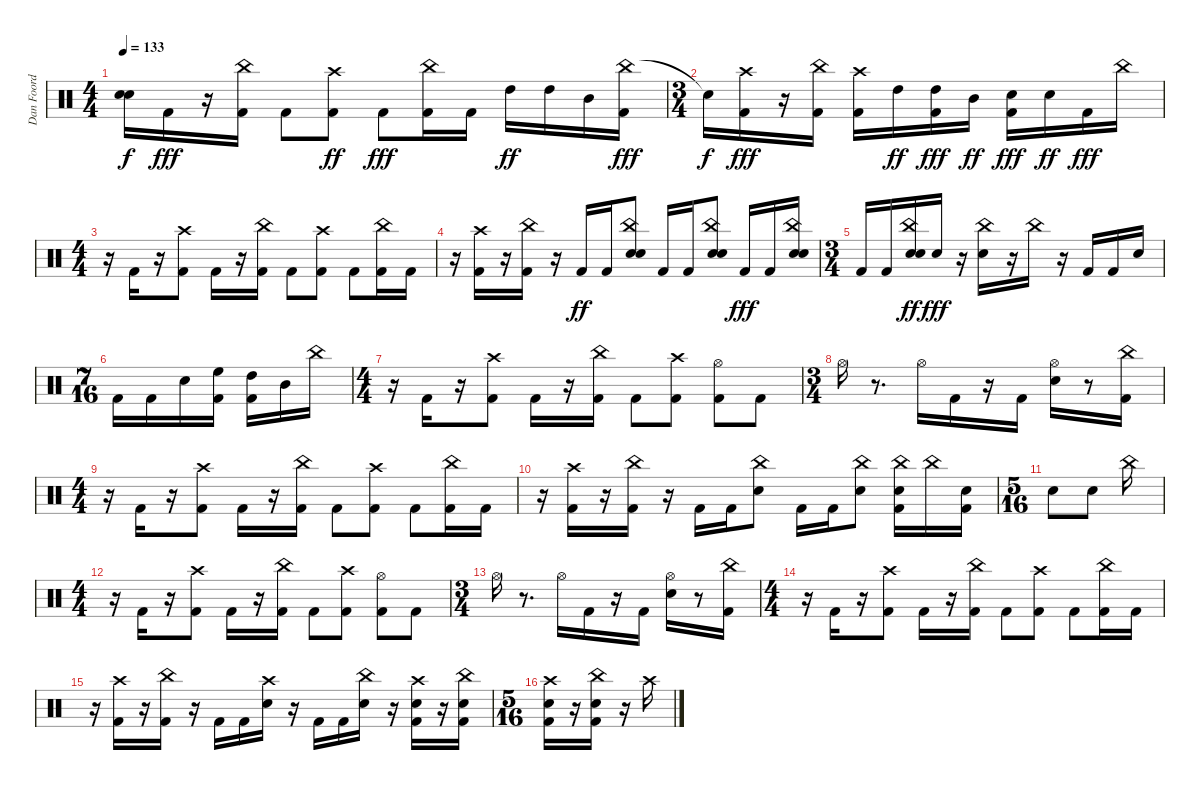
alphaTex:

\track ("Dan Foord 2" "Dan Foord ") {instrument percussion}
\staff {score}
\articulation defaults
\ts (4 4)
\tempo 133
\clef neutral
\ks c
("Snare (hit)"{t} "Snare (hit)"{t}).16{dy f} "Kick (hit) 2".16{dy fff} r.16 ("Kick (hit) 2" "China (hit)").16 "Kick (hit) 2".8 ("Kick (hit) 2" "Crash high (hit)").8{dy ff} "Kick (hit) 2".8{dy fff} ("Kick (hit) 2" "China (hit)").16 "Kick (hit) 2".16 "High Tom (hit)".16{dy ff} "High Tom (hit)".16 "Mid Tom (hit)".16 ("China (hit)" "Kick (hit) 2").16{dy fff} |
\ts (3 4)
"Snare (hit)"{t}.16{dy f} ("Crash high (hit)" "Kick (hit) 2").16{dy fff} r.16 ("China (hit)" "Kick (hit) 2").16 ("Crash high (hit)" "Kick (hit) 2").16 "High Tom (hit)".16{dy ff} ("High Tom (hit)" "Kick (hit) 2").16{dy fff} "Mid Tom (hit)".16{dy ff} ("Snare (hit) 2" "Kick (hit) 2").16{dy fff} "Snare (hit) 2".16{dy ff} "Kick (hit) 2".16{dy fff} "China (hit)".16 |
\ts (4 4)
r.16 "Kick (hit) 2".16 r.16 ("Kick (hit) 2" "Crash high (hit)").8 "Kick (hit) 2".16 r.16 ("Kick (hit) 2" "China (hit)").16 "Kick (hit) 2".8 ("Kick (hit) 2" "Crash high (hit)").8 "Kick (hit) 2".8 ("Kick (hit) 2" "China (hit)").16 "Kick (hit) 2".16 |
r.16 ("Kick (hit) 2" "Crash high (hit)").16 r.16 ("China (hit)" "Kick (hit) 2").16 r.16 "Kick (hit) 2".16{dy ff} "Kick (hit) 2".16 ("Snare (hit) 2" "Electric Snare (hit)" "China (hit)").8 "Kick (hit) 2".16 "Kick (hit) 2".16 ("Snare (hit) 2" "Electric Snare (hit)" "China (hit)").8 "Kick (hit) 2".16{dy fff} "Kick (hit) 2".16 ("Snare (hit) 2" "Electric Snare (hit)" "China (hit)").16 |
\ts (3 4)
"Kick (hit) 2".16 "Kick (hit) 2".16 ("Snare (hit) 2" "Electric Snare (hit)" "China (hit)").16{dy ff} "Snare (hit) 2".16{dy fff} r.16 ("Snare (hit) 2" "China (hit)").16 r.16 "China (hit)".16 r.16 "Kick (hit) 2".16 "Kick (hit) 2".16 "Snare (hit) 2".16 |
\ts (7 16)
"Kick (hit) 2".16 "Kick (hit) 2".16 "Snare (hit) 2".16 ("Kick (hit) 2" "High Floor Tom (hit)").16 ("Kick (hit) 2" "High Tom (hit)").16 "Mid Tom (hit)".16 "China (hit)".16 |
\ts (4 4)
r.16 "Kick (hit) 2".16 r.16 ("Kick (hit) 2" "Crash high (hit)").8 "Kick (hit) 2".16 r.16 ("Kick (hit) 2" "China (hit)").16 "Kick (hit) 2".8 ("Kick (hit) 2" "Crash high (hit)").8 ("Kick (hit) 2" "Hi-Hat (open)").8 "Kick (hit) 2".8 |
\ts (3 4)
"Hi-Hat (open)".16 r.8{d} "Hi-Hat (open)".16 "Kick (hit) 2".16 r.16 "Kick (hit) 2".16 ("Snare (hit) 2" "Hi-Hat (open)").16 r.8 ("Kick (hit) 2" "China (hit)").16 |
\ts (4 4)
r.16 "Kick (hit) 2".16 r.16 ("Kick (hit) 2" "Crash high (hit)").8 "Kick (hit) 2".16 r.16 ("Kick (hit) 2" "China (hit)").16 "Kick (hit) 2".8 ("Kick (hit) 2" "Crash high (hit)").8 "Kick (hit) 2".8 ("Kick (hit) 2" "China (hit)").16 "Kick (hit) 2".16 |
r.16 ("Kick (hit) 2" "Crash high (hit)").16 r.16 ("China (hit)" "Kick (hit) 2").16 r.16 "Kick (hit) 2".16 "Kick (hit) 2".16 ("Snare (hit) 2" "China (hit)").8 "Kick (hit) 2".16 "Kick (hit) 2".16 ("Snare (hit) 2" "China (hit)").8 ("Kick (hit) 2" "Snare (hit) 2" "China (hit)").16 "China (hit)".16 ("Kick (hit) 2" "Snare (hit) 2").16 |
\ts (5 16)
"Snare (hit) 2".8 "Snare (hit) 2".8 "China (hit)".16 |
\ts (4 4)
r.16 "Kick (hit) 2".16 r.16 ("Kick (hit) 2" "Crash high (hit)").8 "Kick (hit) 2".16 r.16 ("Kick (hit) 2" "China (hit)").16 "Kick (hit) 2".8 ("Kick (hit) 2" "Crash high (hit)").8 ("Kick (hit) 2" "Hi-Hat (open)").8 "Kick (hit) 2".8 |
\ts (3 4)
"Hi-Hat (open)".16 r.8{d} "Hi-Hat (open)".16 "Kick (hit) 2".16 r.16 "Kick (hit) 2".16 ("Snare (hit) 2" "Hi-Hat (open)").16 r.8 ("Kick (hit) 2" "China (hit)").16 |
\ts (4 4)
r.16 "Kick (hit) 2".16 r.16 ("Kick (hit) 2" "Crash high (hit)").8 "Kick (hit) 2".16 r.16 ("Kick (hit) 2" "China (hit)").16 "Kick (hit) 2".8 ("Kick (hit) 2" "Crash high (hit)").8 "Kick (hit) 2".8 ("Kick (hit) 2" "China (hit)").16 "Kick (hit) 2".16 |
r.16 ("Kick (hit) 2" "Crash high (hit)").16 r.16 ("China (hit)" "Kick (hit) 2").16 r.16 "Kick (hit) 2".16 "Kick (hit) 2".16 ("Snare (hit) 2" "Crash high (hit)").16 r.16 "Kick (hit) 2".16 "Kick (hit) 2".16 ("Snare (hit) 2" "China (hit)").16 r.16 ("Kick (hit) 2" "Snare (hit) 2" "Crash high (hit)").16 r.16 ("Kick (hit) 2" "Snare (hit) 2" "China (hit)").16 |
\ts (5 16)
("Kick (hit) 2" "Snare (hit) 2" "Crash high (hit)").16 r.16 ("Kick (hit) 2" "Snare (hit) 2" "China (hit)").16 r.16 "Crash high (hit)".16
